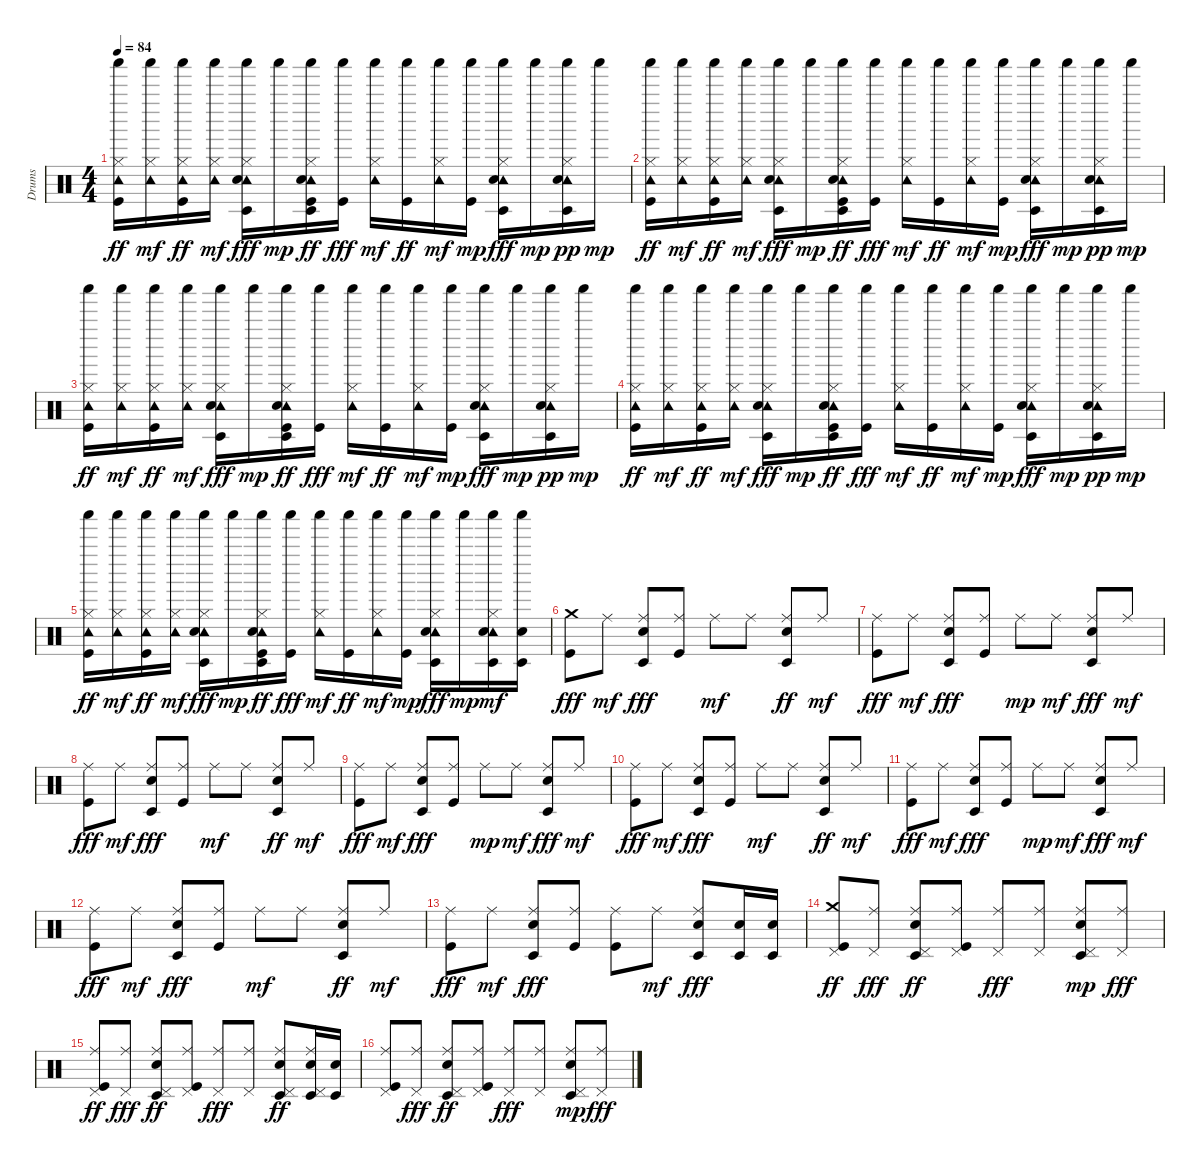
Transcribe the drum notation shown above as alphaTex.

\track ("Drums" "Drums") {instrument percussion}
\staff {score}
\articulation defaults
\ts (4 4)
\tempo 84
\clef neutral
\ks c
("Shaker (hit)" "Tambourine (hit)" "Hi-Hat (closed)" "Kick (hit)").16{dy ff} ("Shaker (hit)" "Tambourine (hit)" "Hi-Hat (closed)").16{dy mf} ("Shaker (hit)" "Tambourine (hit)" "Hi-Hat (closed)" "Kick (hit)").16{dy ff} ("Shaker (hit)" "Tambourine (hit)" "Hi-Hat (closed)").16{dy mf} ("Shaker (hit)" "Tambourine (hit)" "Hi-Hat (closed)" "Timbale low (hit)" "Snare (hit) 2").16{dy fff} "Shaker (hit)".16{dy mp} ("Shaker (hit)" "Tambourine (hit)" "Hi-Hat (closed)" "Timbale low (hit)" "Snare (hit) 2" "Kick (hit)").16{dy ff} ("Shaker (hit)" "Kick (hit)").16{dy fff} ("Shaker (hit)" "Tambourine (hit)" "Hi-Hat (closed)").16{dy mf} ("Shaker (hit)" "Kick (hit)").16{dy ff} ("Shaker (hit)" "Tambourine (hit)" "Hi-Hat (closed)").16{dy mf} ("Shaker (hit)" "Kick (hit)").16{dy mp} ("Shaker (hit)" "Tambourine (hit)" "Hi-Hat (closed)" "Timbale low (hit)" "Snare (hit) 2").16{dy fff} "Shaker (hit)".16{dy mp} ("Shaker (hit)" "Tambourine (hit)" "Hi-Hat (closed)" "Timbale low (hit)" "Snare (hit) 2").16{dy pp} "Shaker (hit)".16{dy mp} |
("Shaker (hit)" "Tambourine (hit)" "Hi-Hat (closed)" "Kick (hit)").16{dy ff} ("Shaker (hit)" "Tambourine (hit)" "Hi-Hat (closed)").16{dy mf} ("Shaker (hit)" "Tambourine (hit)" "Hi-Hat (closed)" "Kick (hit)").16{dy ff} ("Shaker (hit)" "Tambourine (hit)" "Hi-Hat (closed)").16{dy mf} ("Shaker (hit)" "Tambourine (hit)" "Hi-Hat (closed)" "Timbale low (hit)" "Snare (hit) 2").16{dy fff} "Shaker (hit)".16{dy mp} ("Shaker (hit)" "Tambourine (hit)" "Hi-Hat (closed)" "Timbale low (hit)" "Snare (hit) 2" "Kick (hit)").16{dy ff} ("Shaker (hit)" "Kick (hit)").16{dy fff} ("Shaker (hit)" "Tambourine (hit)" "Hi-Hat (closed)").16{dy mf} ("Shaker (hit)" "Kick (hit)").16{dy ff} ("Shaker (hit)" "Tambourine (hit)" "Hi-Hat (closed)").16{dy mf} ("Shaker (hit)" "Kick (hit)").16{dy mp} ("Shaker (hit)" "Tambourine (hit)" "Hi-Hat (closed)" "Timbale low (hit)" "Snare (hit) 2").16{dy fff} "Shaker (hit)".16{dy mp} ("Shaker (hit)" "Tambourine (hit)" "Hi-Hat (closed)" "Timbale low (hit)" "Snare (hit) 2").16{dy pp} "Shaker (hit)".16{dy mp} |
("Shaker (hit)" "Tambourine (hit)" "Hi-Hat (closed)" "Kick (hit)").16{dy ff} ("Shaker (hit)" "Tambourine (hit)" "Hi-Hat (closed)").16{dy mf} ("Shaker (hit)" "Tambourine (hit)" "Hi-Hat (closed)" "Kick (hit)").16{dy ff} ("Shaker (hit)" "Tambourine (hit)" "Hi-Hat (closed)").16{dy mf} ("Shaker (hit)" "Tambourine (hit)" "Hi-Hat (closed)" "Timbale low (hit)" "Snare (hit) 2").16{dy fff} "Shaker (hit)".16{dy mp} ("Shaker (hit)" "Tambourine (hit)" "Hi-Hat (closed)" "Timbale low (hit)" "Snare (hit) 2" "Kick (hit)").16{dy ff} ("Shaker (hit)" "Kick (hit)").16{dy fff} ("Shaker (hit)" "Tambourine (hit)" "Hi-Hat (closed)").16{dy mf} ("Shaker (hit)" "Kick (hit)").16{dy ff} ("Shaker (hit)" "Tambourine (hit)" "Hi-Hat (closed)").16{dy mf} ("Shaker (hit)" "Kick (hit)").16{dy mp} ("Shaker (hit)" "Tambourine (hit)" "Hi-Hat (closed)" "Timbale low (hit)" "Snare (hit) 2").16{dy fff} "Shaker (hit)".16{dy mp} ("Shaker (hit)" "Tambourine (hit)" "Hi-Hat (closed)" "Timbale low (hit)" "Snare (hit) 2").16{dy pp} "Shaker (hit)".16{dy mp} |
("Shaker (hit)" "Tambourine (hit)" "Hi-Hat (closed)" "Kick (hit)").16{dy ff} ("Shaker (hit)" "Tambourine (hit)" "Hi-Hat (closed)").16{dy mf} ("Shaker (hit)" "Tambourine (hit)" "Hi-Hat (closed)" "Kick (hit)").16{dy ff} ("Shaker (hit)" "Tambourine (hit)" "Hi-Hat (closed)").16{dy mf} ("Shaker (hit)" "Tambourine (hit)" "Hi-Hat (closed)" "Timbale low (hit)" "Snare (hit) 2").16{dy fff} "Shaker (hit)".16{dy mp} ("Shaker (hit)" "Tambourine (hit)" "Hi-Hat (closed)" "Timbale low (hit)" "Snare (hit) 2" "Kick (hit)").16{dy ff} ("Shaker (hit)" "Kick (hit)").16{dy fff} ("Shaker (hit)" "Tambourine (hit)" "Hi-Hat (closed)").16{dy mf} ("Shaker (hit)" "Kick (hit)").16{dy ff} ("Shaker (hit)" "Tambourine (hit)" "Hi-Hat (closed)").16{dy mf} ("Shaker (hit)" "Kick (hit)").16{dy mp} ("Shaker (hit)" "Tambourine (hit)" "Hi-Hat (closed)" "Timbale low (hit)" "Snare (hit) 2").16{dy fff} "Shaker (hit)".16{dy mp} ("Shaker (hit)" "Tambourine (hit)" "Hi-Hat (closed)" "Timbale low (hit)" "Snare (hit) 2").16{dy pp} "Shaker (hit)".16{dy mp} |
("Shaker (hit)" "Tambourine (hit)" "Hi-Hat (closed)" "Kick (hit)").16{dy ff} ("Shaker (hit)" "Tambourine (hit)" "Hi-Hat (closed)").16{dy mf} ("Shaker (hit)" "Tambourine (hit)" "Hi-Hat (closed)" "Kick (hit)").16{dy ff} ("Shaker (hit)" "Tambourine (hit)" "Hi-Hat (closed)").16{dy mf} ("Shaker (hit)" "Tambourine (hit)" "Hi-Hat (closed)" "Timbale low (hit)" "Snare (hit) 2").16{dy fff} "Shaker (hit)".16{dy mp} ("Shaker (hit)" "Tambourine (hit)" "Hi-Hat (closed)" "Timbale low (hit)" "Snare (hit) 2" "Kick (hit)").16{dy ff} ("Shaker (hit)" "Kick (hit)").16{dy fff} ("Shaker (hit)" "Tambourine (hit)" "Hi-Hat (closed)").16{dy mf} ("Shaker (hit)" "Kick (hit)").16{dy ff} ("Shaker (hit)" "Tambourine (hit)" "Hi-Hat (closed)").16{dy mf} ("Shaker (hit)" "Kick (hit)").16{dy mp} ("Shaker (hit)" "Tambourine (hit)" "Hi-Hat (closed)" "Timbale low (hit)" "Snare (hit) 2").16{dy fff} "Shaker (hit)".16{dy mp} ("Shaker (hit)" "Tambourine (hit)" "Hi-Hat (closed)" "Timbale low (hit)" "Snare (hit) 2").16{dy mf} ("Shaker (hit)" "Timbale low (hit)" "Snare (hit) 2").16 |
("Crash medium (hit)" "Kick (hit)").8{dy fff} "Ride (middle)".8{dy mf} ("Ride (middle)" "Timbale low (hit)" "Snare (hit) 2").8{dy fff} ("Ride (middle)" "Kick (hit)").8 "Ride (middle)".8{dy mf} "Ride (middle)".8 ("Ride (middle)" "Timbale low (hit)" "Snare (hit) 2").8{dy ff} "Ride (middle)".8{dy mf} |
("Ride (middle)" "Kick (hit)").8{dy fff} "Ride (middle)".8{dy mf} ("Ride (middle)" "Timbale low (hit)" "Snare (hit) 2").8{dy fff} ("Ride (middle)" "Kick (hit)").8 "Ride (middle)".8{dy mp} "Ride (middle)".8{dy mf} ("Ride (middle)" "Timbale low (hit)" "Snare (hit) 2").8{dy fff} "Ride (middle)".8{dy mf} |
("Ride (middle)" "Kick (hit)").8{dy fff} "Ride (middle)".8{dy mf} ("Ride (middle)" "Timbale low (hit)" "Snare (hit) 2").8{dy fff} ("Ride (middle)" "Kick (hit)").8 "Ride (middle)".8{dy mf} "Ride (middle)".8 ("Ride (middle)" "Timbale low (hit)" "Snare (hit) 2").8{dy ff} "Ride (middle)".8{dy mf} |
("Ride (middle)" "Kick (hit)").8{dy fff} "Ride (middle)".8{dy mf} ("Ride (middle)" "Timbale low (hit)" "Snare (hit) 2").8{dy fff} ("Ride (middle)" "Kick (hit)").8 "Ride (middle)".8{dy mp} "Ride (middle)".8{dy mf} ("Ride (middle)" "Timbale low (hit)" "Snare (hit) 2").8{dy fff} "Ride (middle)".8{dy mf} |
("Ride (middle)" "Kick (hit)").8{dy fff} "Ride (middle)".8{dy mf} ("Ride (middle)" "Timbale low (hit)" "Snare (hit) 2").8{dy fff} ("Ride (middle)" "Kick (hit)").8 "Ride (middle)".8{dy mf} "Ride (middle)".8 ("Ride (middle)" "Timbale low (hit)" "Snare (hit) 2").8{dy ff} "Ride (middle)".8{dy mf} |
("Ride (middle)" "Kick (hit)").8{dy fff} "Ride (middle)".8{dy mf} ("Ride (middle)" "Timbale low (hit)" "Snare (hit) 2").8{dy fff} ("Ride (middle)" "Kick (hit)").8 "Ride (middle)".8{dy mp} "Ride (middle)".8{dy mf} ("Ride (middle)" "Timbale low (hit)" "Snare (hit) 2").8{dy fff} "Ride (middle)".8{dy mf} |
("Ride (middle)" "Kick (hit)").8{dy fff} "Ride (middle)".8{dy mf} ("Ride (middle)" "Timbale low (hit)" "Snare (hit) 2").8{dy fff} ("Ride (middle)" "Kick (hit)").8 "Ride (middle)".8{dy mf} "Ride (middle)".8 ("Ride (middle)" "Timbale low (hit)" "Snare (hit) 2").8{dy ff} "Ride (middle)".8{dy mf} |
("Ride (middle)" "Kick (hit)").8{dy fff} "Ride (middle)".8{dy mf} ("Ride (middle)" "Timbale low (hit)" "Snare (hit) 2").8{dy fff} ("Ride (middle)" "Kick (hit)").8 ("Ride (middle)" "Kick (hit)").8 "Ride (middle)".8{dy mf} ("Ride (middle)" "Timbale low (hit)" "Snare (hit) 2").8{dy fff} ("Timbale low (hit)" "Snare (hit) 2").16 ("Timbale low (hit)" "Snare (hit) 2").16 |
("Crash medium (hit)" "Pedal Hi-Hat (hit)" "Kick (hit)").8{dy ff} ("Ride (middle)" "Pedal Hi-Hat (hit)").8{dy fff} ("Ride (middle)" "Pedal Hi-Hat (hit)" "Timbale low (hit)" "Snare (hit) 2").8{dy ff} ("Ride (middle)" "Pedal Hi-Hat (hit)" "Kick (hit)").8 ("Ride (middle)" "Pedal Hi-Hat (hit)").8{dy fff} ("Ride (middle)" "Pedal Hi-Hat (hit)").8 ("Ride (middle)" "Pedal Hi-Hat (hit)" "Timbale low (hit)" "Snare (hit) 2").8{dy mp} ("Ride (middle)" "Pedal Hi-Hat (hit)").8{dy fff} |
("Ride (middle)" "Pedal Hi-Hat (hit)" "Kick (hit)").8{dy ff} ("Ride (middle)" "Pedal Hi-Hat (hit)").8{dy fff} ("Ride (middle)" "Pedal Hi-Hat (hit)" "Timbale low (hit)" "Snare (hit) 2").8{dy ff} ("Ride (middle)" "Pedal Hi-Hat (hit)" "Kick (hit)").8 ("Ride (middle)" "Pedal Hi-Hat (hit)").8{dy fff} ("Ride (middle)" "Pedal Hi-Hat (hit)").8 ("Ride (middle)" "Pedal Hi-Hat (hit)" "Timbale low (hit)" "Snare (hit) 2").8{dy ff} ("Ride (middle)" "Pedal Hi-Hat (hit)" "Timbale low (hit)" "Snare (hit) 2").16 ("Timbale low (hit)" "Snare (hit) 2").16 |
("Ride (middle)" "Pedal Hi-Hat (hit)" "Kick (hit)").8 ("Ride (middle)" "Pedal Hi-Hat (hit)").8{dy fff} ("Ride (middle)" "Pedal Hi-Hat (hit)" "Timbale low (hit)" "Snare (hit) 2").8{dy ff} ("Ride (middle)" "Pedal Hi-Hat (hit)" "Kick (hit)").8 ("Ride (middle)" "Pedal Hi-Hat (hit)").8{dy fff} ("Ride (middle)" "Pedal Hi-Hat (hit)").8 ("Ride (middle)" "Pedal Hi-Hat (hit)" "Timbale low (hit)" "Snare (hit) 2").8{dy mp} ("Ride (middle)" "Pedal Hi-Hat (hit)").8{dy fff}
